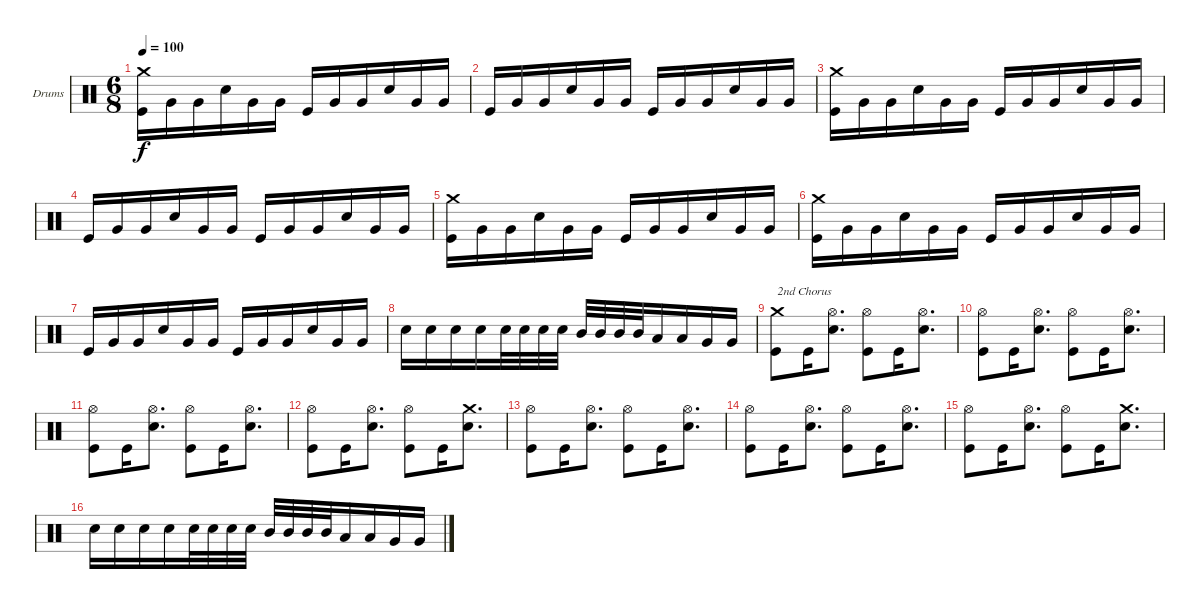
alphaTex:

\defaultSystemsLayout 4
\bracketExtendMode groupsimilarinstruments
\firstSystemTrackNameOrientation horizontal
\otherSystemsTrackNameOrientation horizontal
\track ("Stefan Schwarzmann" "Drums") {instrument percussion}
\staff {score}
\articulation defaults
\ts (6 8)
\tempo 100
\clef neutral
\ks c
("Crash medium (hit)" "Kick (hit)").16{dy f} "Very Low Tom (hit)".16 "Very Low Tom (hit)".16 "Snare (hit) 2".16 "Very Low Tom (hit)".16 "Very Low Tom (hit)".16 "Kick (hit)".16 "Very Low Tom (hit)".16 "Very Low Tom (hit)".16 "Snare (hit) 2".16 "Very Low Tom (hit)".16 "Very Low Tom (hit)".16 |
"Kick (hit)".16 "Very Low Tom (hit)".16 "Very Low Tom (hit)".16 "Snare (hit) 2".16 "Very Low Tom (hit)".16 "Very Low Tom (hit)".16 "Kick (hit)".16 "Very Low Tom (hit)".16 "Very Low Tom (hit)".16 "Snare (hit) 2".16 "Very Low Tom (hit)".16 "Very Low Tom (hit)".16 |
("Crash medium (hit)" "Kick (hit)").16 "Very Low Tom (hit)".16 "Very Low Tom (hit)".16 "Snare (hit) 2".16 "Very Low Tom (hit)".16 "Very Low Tom (hit)".16 "Kick (hit)".16 "Very Low Tom (hit)".16 "Very Low Tom (hit)".16 "Snare (hit) 2".16 "Very Low Tom (hit)".16 "Very Low Tom (hit)".16 |
"Kick (hit)".16 "Very Low Tom (hit)".16 "Very Low Tom (hit)".16 "Snare (hit) 2".16 "Very Low Tom (hit)".16 "Very Low Tom (hit)".16 "Kick (hit)".16 "Very Low Tom (hit)".16 "Very Low Tom (hit)".16 "Snare (hit) 2".16 "Very Low Tom (hit)".16 "Very Low Tom (hit)".16 |
("Crash medium (hit)" "Kick (hit)").16 "Very Low Tom (hit)".16 "Very Low Tom (hit)".16 "Snare (hit) 2".16 "Very Low Tom (hit)".16 "Very Low Tom (hit)".16 "Kick (hit)".16 "Very Low Tom (hit)".16 "Very Low Tom (hit)".16 "Snare (hit) 2".16 "Very Low Tom (hit)".16 "Very Low Tom (hit)".16 |
("Crash medium (hit)" "Kick (hit)").16 "Very Low Tom (hit)".16 "Very Low Tom (hit)".16 "Snare (hit) 2".16 "Very Low Tom (hit)".16 "Very Low Tom (hit)".16 "Kick (hit)".16 "Very Low Tom (hit)".16 "Very Low Tom (hit)".16 "Snare (hit) 2".16 "Very Low Tom (hit)".16 "Very Low Tom (hit)".16 |
"Kick (hit)".16 "Very Low Tom (hit)".16 "Very Low Tom (hit)".16 "Snare (hit) 2".16 "Very Low Tom (hit)".16 "Very Low Tom (hit)".16 "Kick (hit)".16 "Very Low Tom (hit)".16 "Very Low Tom (hit)".16 "Snare (hit) 2".16 "Very Low Tom (hit)".16 "Very Low Tom (hit)".16 |
"Snare (hit) 2".16 "Snare (hit) 2".16 "Snare (hit) 2".16 "Snare (hit) 2".16 "Snare (hit) 2".32 "Snare (hit) 2".32 "Snare (hit) 2".32 "Snare (hit) 2".32 "Mid Tom (hit)".32 "Mid Tom (hit)".32 "Mid Tom (hit)".32 "Mid Tom (hit)".32 "Low Tom (hit)".16 "Low Tom (hit)".16 "Very Low Tom (hit)".16 "Very Low Tom (hit)".16 |
("Kick (hit)" "Crash medium (hit)").8{txt "2nd Chorus"} "Kick (hit)".16 ("Snare (hit) 2" "Hi-Hat (open)").8{d} ("Kick (hit)" "Hi-Hat (open)").8 "Kick (hit)".16 ("Snare (hit) 2" "Hi-Hat (open)").8{d} |
("Kick (hit)" "Hi-Hat (open)").8 "Kick (hit)".16 ("Snare (hit) 2" "Hi-Hat (open)").8{d} ("Kick (hit)" "Hi-Hat (open)").8 "Kick (hit)".16 ("Snare (hit) 2" "Hi-Hat (open)").8{d} |
("Kick (hit)" "Hi-Hat (open)").8 "Kick (hit)".16 ("Snare (hit) 2" "Hi-Hat (open)").8{d} ("Kick (hit)" "Hi-Hat (open)").8 "Kick (hit)".16 ("Snare (hit) 2" "Hi-Hat (open)").8{d} |
("Kick (hit)" "Hi-Hat (open)").8 "Kick (hit)".16 ("Snare (hit) 2" "Hi-Hat (open)").8{d} ("Kick (hit)" "Hi-Hat (open)").8 "Kick (hit)".16 ("Snare (hit) 2" "Crash medium (hit)").8{d} |
("Kick (hit)" "Hi-Hat (open)").8 "Kick (hit)".16 ("Snare (hit) 2" "Hi-Hat (open)").8{d} ("Kick (hit)" "Hi-Hat (open)").8 "Kick (hit)".16 ("Snare (hit) 2" "Hi-Hat (open)").8{d} |
("Kick (hit)" "Hi-Hat (open)").8 "Kick (hit)".16 ("Snare (hit) 2" "Hi-Hat (open)").8{d} ("Kick (hit)" "Hi-Hat (open)").8 "Kick (hit)".16 ("Snare (hit) 2" "Hi-Hat (open)").8{d} |
("Kick (hit)" "Hi-Hat (open)").8 "Kick (hit)".16 ("Snare (hit) 2" "Hi-Hat (open)").8{d} ("Kick (hit)" "Hi-Hat (open)").8 "Kick (hit)".16 ("Snare (hit) 2" "Crash medium (hit)").8{d} |
"Snare (hit) 2".16 "Snare (hit) 2".16 "Snare (hit) 2".16 "Snare (hit) 2".16 "Snare (hit) 2".32 "Snare (hit) 2".32 "Snare (hit) 2".32 "Snare (hit) 2".32 "Mid Tom (hit)".32 "Mid Tom (hit)".32 "Mid Tom (hit)".32 "Mid Tom (hit)".32 "Low Tom (hit)".16 "Low Tom (hit)".16 "Very Low Tom (hit)".16 "Very Low Tom (hit)".16
